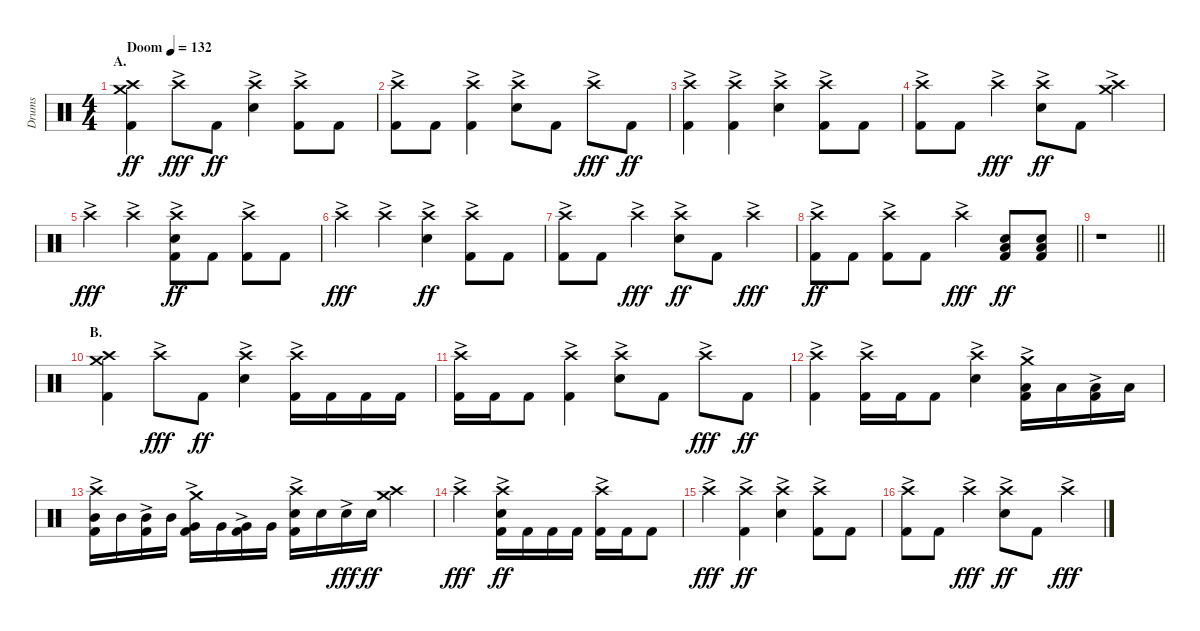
\track ("Drums" "Drums") {instrument percussion}
\staff {score}
\articulation defaults
\ts (4 4)
\section ("" "A.")
\tempo (132 "Doom")
\clef neutral
\ks c
("Crash medium (hit)" "Crash high (hit)" "Kick (hit) 2").4{dy ff} "Crash high (hit)"{ac}.8{dy fff} "Kick (hit) 2".8{dy ff} ("Crash high (hit)"{ac} "Electric Snare (hit)").4 ("Crash high (hit)"{ac} "Kick (hit) 2").8 "Kick (hit) 2".8 |
("Crash high (hit)"{ac} "Kick (hit) 2").8 "Kick (hit) 2".8 ("Crash high (hit)"{ac} "Kick (hit) 2").4 ("Crash high (hit)"{ac} "Electric Snare (hit)").8 "Kick (hit) 2".8 "Crash high (hit)"{ac}.8{dy fff} "Kick (hit) 2".8{dy ff} |
("Crash high (hit)"{ac} "Kick (hit) 2").4 ("Crash high (hit)"{ac} "Kick (hit) 2").4 ("Crash high (hit)"{ac} "Electric Snare (hit)").4 ("Crash high (hit)"{ac} "Kick (hit) 2").8 "Kick (hit) 2".8 |
("Crash high (hit)"{ac} "Kick (hit) 2").8 "Kick (hit) 2".8 "Crash high (hit)"{ac}.4{dy fff} ("Crash high (hit)"{ac} "Electric Snare (hit)").8{dy ff} "Kick (hit) 2".8 ("Crash medium (hit)"{ac} "Crash high (hit)").4 |
"Crash high (hit)"{ac}.4{dy fff} "Crash high (hit)"{ac}.4 ("Crash high (hit)"{ac} "Electric Snare (hit)" "Kick (hit) 2").8{dy ff} "Kick (hit) 2".8 ("Crash high (hit)"{ac} "Kick (hit) 2").8 "Kick (hit) 2".8 |
"Crash high (hit)"{ac}.4{dy fff} "Crash high (hit)"{ac}.4 ("Crash high (hit)"{ac} "Electric Snare (hit)").4{dy ff} ("Crash high (hit)"{ac} "Kick (hit) 2").8 "Kick (hit) 2".8 |
("Crash high (hit)"{ac} "Kick (hit) 2").8 "Kick (hit) 2".8 "Crash high (hit)"{ac}.4{dy fff} ("Crash high (hit)"{ac} "Electric Snare (hit)").8{dy ff} "Kick (hit) 2".8 "Crash high (hit)"{ac}.4{dy fff} |
\barLineRight lightlight
("Crash high (hit)"{ac} "Kick (hit) 2").8{dy ff} "Kick (hit) 2".8 ("Crash high (hit)"{ac} "Kick (hit) 2").8 "Kick (hit) 2".8 "Crash high (hit)"{ac}.4{dy fff} ("Low Tom (hit)" "Electric Snare (hit)" "Kick (hit) 2").8{dy ff} ("Low Tom (hit)" "Electric Snare (hit)" "Kick (hit) 2").8 |
\section ("" "")
\barLineRight lightlight
r.1 |
\section ("" "B.")
("Crash medium (hit)" "Crash high (hit)" "Kick (hit) 2").4 "Crash high (hit)"{ac}.8{dy fff} "Kick (hit) 2".8{dy ff} ("Crash high (hit)"{ac} "Electric Snare (hit)").4 ("Crash high (hit)"{ac} "Kick (hit) 2").16 "Kick (hit) 2".16 "Kick (hit) 2".16 "Kick (hit) 2".16 |
("Crash high (hit)"{ac} "Kick (hit) 2").16 "Kick (hit) 2".16 "Kick (hit) 2".8 ("Crash high (hit)"{ac} "Kick (hit) 2").4 ("Crash high (hit)"{ac} "Electric Snare (hit)").8 "Kick (hit) 2".8 "Crash high (hit)"{ac}.8{dy fff} "Kick (hit) 2".8{dy ff} |
("Crash high (hit)"{ac} "Kick (hit) 2").4 ("Crash high (hit)"{ac} "Kick (hit) 2").16 "Kick (hit) 2".16 "Kick (hit) 2".8 ("Crash high (hit)"{ac} "Electric Snare (hit)").4 ("Crash medium (hit)" "Low Tom (hit)"{ac} "Kick (hit) 2").16 "Low Tom (hit)".16 ("Low Tom (hit)"{ac} "Kick (hit) 2").16 "Low Tom (hit)".16 |
("Crash high (hit)" "Mid Tom (hit)"{ac} "Kick (hit) 2").16 "Mid Tom (hit)".16 ("Mid Tom (hit)"{ac} "Kick (hit) 2").16 "Mid Tom (hit)".16 ("Crash medium (hit)" "Very Low Tom (hit)"{ac} "Kick (hit) 2").16 "Very Low Tom (hit)".16 ("Very Low Tom (hit)"{ac} "Kick (hit) 2").16 "Very Low Tom (hit)".16 ("Crash high (hit)" "Electric Snare (hit)"{ac} "Kick (hit) 2").16 "Electric Snare (hit)".16 "Electric Snare (hit)"{ac}.16{dy fff} "Electric Snare (hit)".16{dy ff} ("Crash medium (hit)" "Crash high (hit)").4 |
"Crash high (hit)"{ac}.2{dy fff} ("Crash high (hit)"{ac} "Electric Snare (hit)" "Kick (hit) 2").16{dy ff} "Kick (hit) 2".16 "Kick (hit) 2".16 "Kick (hit) 2".16 ("Crash high (hit)"{ac} "Kick (hit) 2").16 "Kick (hit) 2".16 "Kick (hit) 2".8 |
"Crash high (hit)"{ac}.4{dy fff} ("Crash high (hit)"{ac} "Kick (hit) 2").4{dy ff} ("Crash high (hit)"{ac} "Electric Snare (hit)").4 ("Crash high (hit)"{ac} "Kick (hit) 2").8 "Kick (hit) 2".8 |
("Crash high (hit)"{ac} "Kick (hit) 2").8 "Kick (hit) 2".8 "Crash high (hit)"{ac}.4{dy fff} ("Crash high (hit)"{ac} "Electric Snare (hit)").8{dy ff} "Kick (hit) 2".8 "Crash high (hit)"{ac}.4{dy fff}
